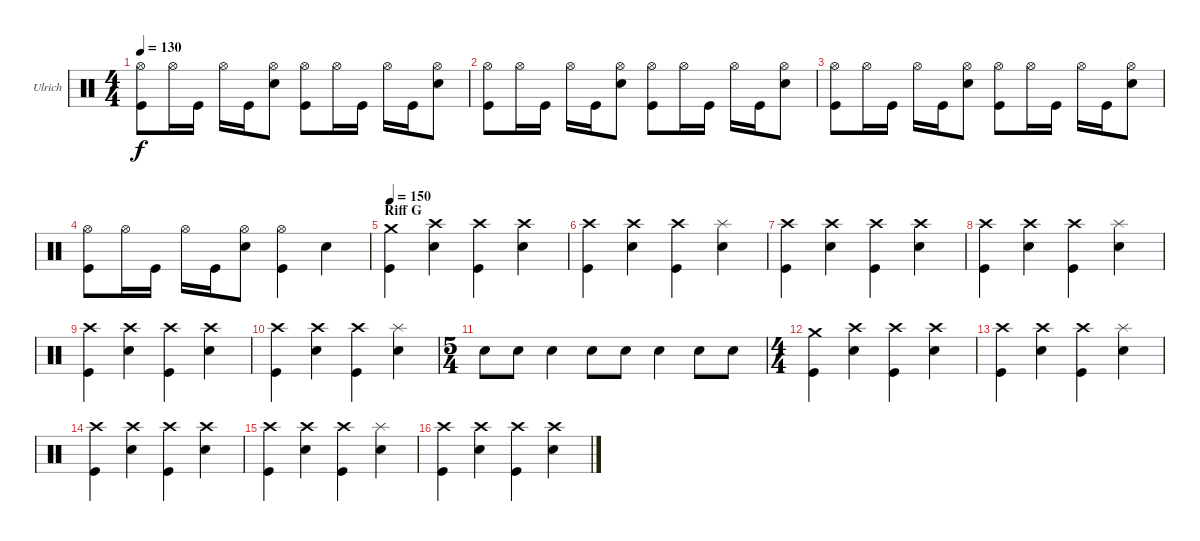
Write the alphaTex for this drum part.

\bracketExtendMode groupsimilarinstruments
\firstSystemTrackNameOrientation horizontal
\otherSystemsTrackNameOrientation horizontal
\track ("Drumkit" "Ulrich") {instrument percussion}
\staff {score}
\articulation defaults
\ts (4 4)
\tempo 130
\clef neutral
\ks c
("Hi-Hat (open)" "Kick (hit)").8{dy f} "Hi-Hat (open)".16 "Kick (hit)".16 "Hi-Hat (open)".16 "Kick (hit)".16 ("Hi-Hat (open)" "Snare (hit) 2").8 ("Hi-Hat (open)" "Kick (hit)").8 "Hi-Hat (open)".16 "Kick (hit)".16 "Hi-Hat (open)".16 "Kick (hit)".16 ("Hi-Hat (open)" "Snare (hit) 2").8 |
("Hi-Hat (open)" "Kick (hit)").8 "Hi-Hat (open)".16 "Kick (hit)".16 "Hi-Hat (open)".16 "Kick (hit)".16 ("Hi-Hat (open)" "Snare (hit) 2").8 ("Hi-Hat (open)" "Kick (hit)").8 "Hi-Hat (open)".16 "Kick (hit)".16 "Hi-Hat (open)".16 "Kick (hit)".16 ("Hi-Hat (open)" "Snare (hit) 2").8 |
("Hi-Hat (open)" "Kick (hit)").8 "Hi-Hat (open)".16 "Kick (hit)".16 "Hi-Hat (open)".16 "Kick (hit)".16 ("Hi-Hat (open)" "Snare (hit) 2").8 ("Hi-Hat (open)" "Kick (hit)").8 "Hi-Hat (open)".16 "Kick (hit)".16 "Hi-Hat (open)".16 "Kick (hit)".16 ("Hi-Hat (open)" "Snare (hit) 2").8 |
("Hi-Hat (open)" "Kick (hit)").8 "Hi-Hat (open)".16 "Kick (hit)".16 "Hi-Hat (open)".16 "Kick (hit)".16 ("Hi-Hat (open)" "Snare (hit) 2").8 ("Hi-Hat (open)" "Kick (hit)").4 "Snare (hit) 2".4 |
\section ("" "Riff G")
\tempo 150
("Crash medium (hit)" "Kick (hit)").4 ("Crash high (hit)" "Snare (hit) 2").4 ("Crash high (hit)" "Kick (hit)").4 ("Crash high (hit)" "Snare (hit) 2").4 |
("Crash high (hit)" "Kick (hit)").4 ("Crash high (hit)" "Snare (hit) 2").4 ("Crash high (hit)" "Kick (hit)").4 ("Splash (hit)" "Snare (hit) 2").4 |
("Crash high (hit)" "Kick (hit)").4 ("Crash high (hit)" "Snare (hit) 2").4 ("Crash high (hit)" "Kick (hit)").4 ("Crash high (hit)" "Snare (hit) 2").4 |
("Crash high (hit)" "Kick (hit)").4 ("Crash high (hit)" "Snare (hit) 2").4 ("Crash high (hit)" "Kick (hit)").4 ("Splash (hit)" "Snare (hit) 2").4 |
("Crash high (hit)" "Kick (hit)").4 ("Crash high (hit)" "Snare (hit) 2").4 ("Crash high (hit)" "Kick (hit)").4 ("Crash high (hit)" "Snare (hit) 2").4 |
("Crash high (hit)" "Kick (hit)").4 ("Crash high (hit)" "Snare (hit) 2").4 ("Crash high (hit)" "Kick (hit)").4 ("Splash (hit)" "Snare (hit) 2").4 |
\ts (5 4)
\beaming (8 6 4)
"Snare (hit) 2".8 "Snare (hit) 2".8 "Snare (hit) 2".4 "Snare (hit) 2".8 "Snare (hit) 2".8 "Snare (hit) 2".4 "Snare (hit) 2".8 "Snare (hit) 2".8 |
\ts (4 4)
\beaming (8 2 2 2 2)
("Crash medium (hit)" "Kick (hit)").4 ("Crash high (hit)" "Snare (hit) 2").4 ("Crash high (hit)" "Kick (hit)").4 ("Crash high (hit)" "Snare (hit) 2").4 |
("Crash high (hit)" "Kick (hit)").4 ("Crash high (hit)" "Snare (hit) 2").4 ("Crash high (hit)" "Kick (hit)").4 ("Splash (hit)" "Snare (hit) 2").4 |
("Crash high (hit)" "Kick (hit)").4 ("Crash high (hit)" "Snare (hit) 2").4 ("Crash high (hit)" "Kick (hit)").4 ("Crash high (hit)" "Snare (hit) 2").4 |
("Crash high (hit)" "Kick (hit)").4 ("Crash high (hit)" "Snare (hit) 2").4 ("Crash high (hit)" "Kick (hit)").4 ("Splash (hit)" "Snare (hit) 2").4 |
("Crash high (hit)" "Kick (hit)").4 ("Crash high (hit)" "Snare (hit) 2").4 ("Crash high (hit)" "Kick (hit)").4 ("Crash high (hit)" "Snare (hit) 2").4
